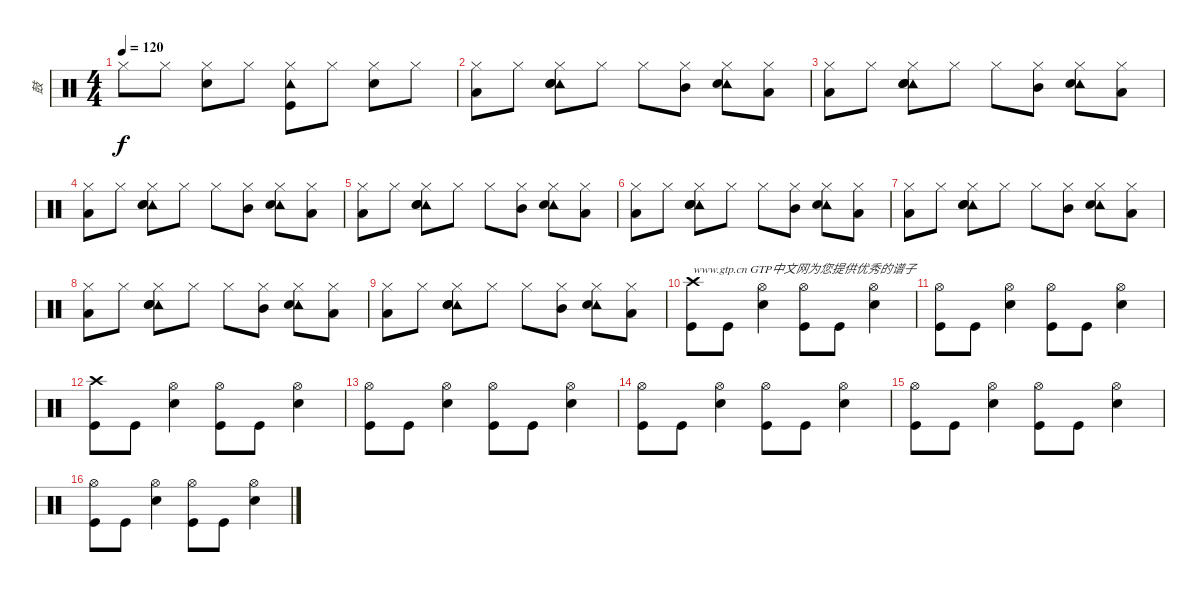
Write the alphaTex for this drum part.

\track ("鼓" "鼓") {instrument percussion}
\staff {score}
\articulation defaults
\ts (4 4)
\tempo 120
\clef neutral
\ks c "Hi-Hat (closed)".8{dy f} "Hi-Hat (closed)".8
("Hand Clap (hit)" "Hi-Hat (closed)").8 "Hi-Hat (closed)".8 ("Tambourine (hit)" "Kick (hit)" "Hi-Hat (closed)").8 "Hi-Hat (closed)".8 ("Hand Clap (hit)" "Hi-Hat (closed)").8 "Hi-Hat (closed)".8 |
("Hi-Hat (closed)" "Low Floor Tom (hit)").8 "Hi-Hat (closed)".8 ("Hi-Hat (closed)" "Tambourine (hit)" "Electric Snare (hit)" "Hand Clap (hit)").8 "Hi-Hat (closed)".8 "Hi-Hat (closed)".8 ("Hi-Hat (closed)" "Mid Tom (hit)").8 ("Hi-Hat (closed)" "Tambourine (hit)" "Hand Clap (hit)").8 ("Hi-Hat (closed)" "Low Tom (hit)").8 |
("Hi-Hat (closed)" "Low Floor Tom (hit)").8 "Hi-Hat (closed)".8 ("Hi-Hat (closed)" "Tambourine (hit)" "Electric Snare (hit)" "Hand Clap (hit)").8 "Hi-Hat (closed)".8 "Hi-Hat (closed)".8 ("Hi-Hat (closed)" "Mid Tom (hit)").8 ("Hi-Hat (closed)" "Tambourine (hit)" "Hand Clap (hit)").8 ("Hi-Hat (closed)" "Low Tom (hit)").8 |
("Hi-Hat (closed)" "Low Floor Tom (hit)").8 "Hi-Hat (closed)".8 ("Hi-Hat (closed)" "Tambourine (hit)" "Electric Snare (hit)" "Hand Clap (hit)").8 "Hi-Hat (closed)".8 "Hi-Hat (closed)".8 ("Hi-Hat (closed)" "Mid Tom (hit)").8 ("Hi-Hat (closed)" "Tambourine (hit)" "Hand Clap (hit)").8 ("Hi-Hat (closed)" "Low Tom (hit)").8 |
("Hi-Hat (closed)" "Low Floor Tom (hit)").8 "Hi-Hat (closed)".8 ("Hi-Hat (closed)" "Tambourine (hit)" "Electric Snare (hit)" "Hand Clap (hit)").8 "Hi-Hat (closed)".8 "Hi-Hat (closed)".8 ("Hi-Hat (closed)" "Mid Tom (hit)").8 ("Hi-Hat (closed)" "Tambourine (hit)" "Hand Clap (hit)").8 ("Hi-Hat (closed)" "Low Tom (hit)").8 |
("Hi-Hat (closed)" "Low Floor Tom (hit)").8 "Hi-Hat (closed)".8 ("Hi-Hat (closed)" "Tambourine (hit)" "Electric Snare (hit)" "Hand Clap (hit)").8 "Hi-Hat (closed)".8 "Hi-Hat (closed)".8 ("Hi-Hat (closed)" "Mid Tom (hit)").8 ("Hi-Hat (closed)" "Tambourine (hit)" "Hand Clap (hit)").8 ("Hi-Hat (closed)" "Low Tom (hit)").8 |
("Hi-Hat (closed)" "Low Floor Tom (hit)").8 "Hi-Hat (closed)".8 ("Hi-Hat (closed)" "Tambourine (hit)" "Electric Snare (hit)" "Hand Clap (hit)").8 "Hi-Hat (closed)".8 "Hi-Hat (closed)".8 ("Hi-Hat (closed)" "Mid Tom (hit)").8 ("Hi-Hat (closed)" "Tambourine (hit)" "Hand Clap (hit)").8 ("Hi-Hat (closed)" "Low Tom (hit)").8 |
("Hi-Hat (closed)" "Low Floor Tom (hit)").8 "Hi-Hat (closed)".8 ("Hi-Hat (closed)" "Tambourine (hit)" "Electric Snare (hit)" "Hand Clap (hit)").8 "Hi-Hat (closed)".8 "Hi-Hat (closed)".8 ("Hi-Hat (closed)" "Mid Tom (hit)").8 ("Hi-Hat (closed)" "Tambourine (hit)" "Hand Clap (hit)").8 ("Hi-Hat (closed)" "Low Tom (hit)").8 |
("Hi-Hat (closed)" "Low Floor Tom (hit)").8 "Hi-Hat (closed)".8 ("Hi-Hat (closed)" "Tambourine (hit)" "Electric Snare (hit)" "Hand Clap (hit)").8 "Hi-Hat (closed)".8 "Hi-Hat (closed)".8 ("Hi-Hat (closed)" "Mid Tom (hit)").8 ("Hi-Hat (closed)" "Tambourine (hit)" "Hand Clap (hit)").8 ("Hi-Hat (closed)" "Low Tom (hit)").8 |
("Crash high (hit)" "Kick (hit)").8{txt "www.gtp.cn GTP中文网为您提供优秀的谱子"} "Kick (hit)".8 ("Hi-Hat (open)" "Electric Snare (hit)").4 ("Hi-Hat (open)" "Kick (hit)").8 "Kick (hit)".8 ("Hi-Hat (open)" "Electric Snare (hit)").4 |
("Hi-Hat (open)" "Kick (hit)").8 "Kick (hit)".8 ("Hi-Hat (open)" "Electric Snare (hit)").4 ("Hi-Hat (open)" "Kick (hit)").8 "Kick (hit)".8 ("Hi-Hat (open)" "Electric Snare (hit)").4 |
("Crash high (hit)" "Kick (hit)").8 "Kick (hit)".8 ("Hi-Hat (open)" "Electric Snare (hit)").4 ("Hi-Hat (open)" "Kick (hit)").8 "Kick (hit)".8 ("Hi-Hat (open)" "Electric Snare (hit)").4 |
("Hi-Hat (open)" "Kick (hit)").8 "Kick (hit)".8 ("Hi-Hat (open)" "Electric Snare (hit)").4 ("Hi-Hat (open)" "Kick (hit)").8 "Kick (hit)".8 ("Hi-Hat (open)" "Electric Snare (hit)").4 |
("Hi-Hat (open)" "Kick (hit)").8 "Kick (hit)".8 ("Hi-Hat (open)" "Electric Snare (hit)").4 ("Hi-Hat (open)" "Kick (hit)").8 "Kick (hit)".8 ("Hi-Hat (open)" "Electric Snare (hit)").4 |
("Hi-Hat (open)" "Kick (hit)").8 "Kick (hit)".8 ("Hi-Hat (open)" "Electric Snare (hit)").4 ("Hi-Hat (open)" "Kick (hit)").8 "Kick (hit)".8 ("Hi-Hat (open)" "Electric Snare (hit)").4 |
("Hi-Hat (open)" "Kick (hit)").8 "Kick (hit)".8 ("Hi-Hat (open)" "Electric Snare (hit)").4 ("Hi-Hat (open)" "Kick (hit)").8 "Kick (hit)".8 ("Hi-Hat (open)" "Electric Snare (hit)").4
